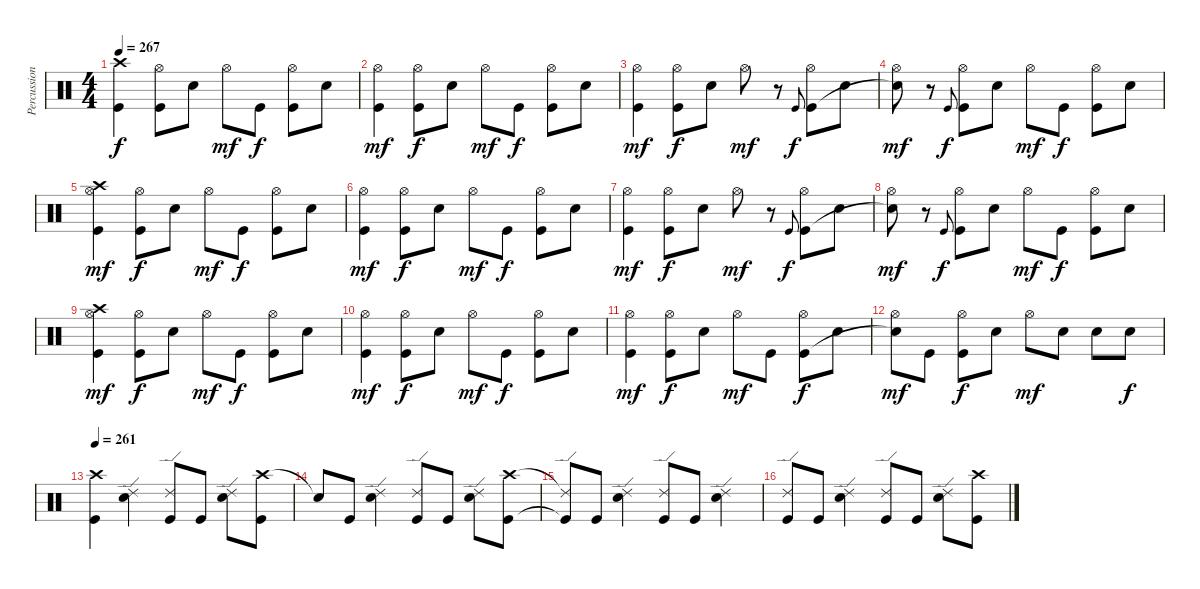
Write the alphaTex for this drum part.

\track ("Percussion" "Percussion") {instrument percussion}
\staff {score}
\articulation defaults
\ts (4 4)
\tempo 267
\clef neutral
\ks c
("Crash high (hit)" "Kick (hit)").4{dy f} ("Hi-Hat (open)" "Kick (hit)").8 "Electric Snare (hit)".8 "Hi-Hat (open)".8{dy mf} "Kick (hit)".8{dy f} ("Hi-Hat (open)" "Kick (hit)").8 "Electric Snare (hit)".8 |
("Hi-Hat (open)" "Kick (hit)").4{dy mf} ("Hi-Hat (open)" "Kick (hit)").8{dy f} "Electric Snare (hit)".8 "Hi-Hat (open)".8{dy mf} "Kick (hit)".8{dy f} ("Hi-Hat (open)" "Kick (hit)").8 "Electric Snare (hit)".8 |
("Hi-Hat (open)" "Kick (hit)").4{dy mf} ("Hi-Hat (open)" "Kick (hit)").8{dy f} "Electric Snare (hit)".8 "Hi-Hat (open)".8{dy mf} r.8 "Kick (hit)".8{gr onbeat dy f} ("Hi-Hat (open)" "Kick (hit)").8 "Electric Snare (hit)".8 |
("Hi-Hat (open)" "Snare (hit)"{t}).8{dy mf} r.8 "Kick (hit)".8{gr onbeat dy f} ("Hi-Hat (open)" "Kick (hit)").8 "Electric Snare (hit)".8 "Hi-Hat (open)".8{dy mf} "Kick (hit)".8{dy f} ("Hi-Hat (open)" "Kick (hit)").8 "Electric Snare (hit)".8 |
("Crash high (hit)" "Hi-Hat (open)" "Kick (hit)").4{dy mf} ("Hi-Hat (open)" "Kick (hit)").8{dy f} "Electric Snare (hit)".8 "Hi-Hat (open)".8{dy mf} "Kick (hit)".8{dy f} ("Hi-Hat (open)" "Kick (hit)").8 "Electric Snare (hit)".8 |
("Hi-Hat (open)" "Kick (hit)").4{dy mf} ("Hi-Hat (open)" "Kick (hit)").8{dy f} "Electric Snare (hit)".8 "Hi-Hat (open)".8{dy mf} "Kick (hit)".8{dy f} ("Hi-Hat (open)" "Kick (hit)").8 "Electric Snare (hit)".8 |
("Hi-Hat (open)" "Kick (hit)").4{dy mf} ("Hi-Hat (open)" "Kick (hit)").8{dy f} "Electric Snare (hit)".8 "Hi-Hat (open)".8{dy mf} r.8 "Kick (hit)".8{gr onbeat dy f} ("Hi-Hat (open)" "Kick (hit)").8 "Electric Snare (hit)".8 |
("Hi-Hat (open)" "Snare (hit)"{t}).8{dy mf} r.8 "Kick (hit)".8{gr onbeat dy f} ("Hi-Hat (open)" "Kick (hit)").8 "Electric Snare (hit)".8 "Hi-Hat (open)".8{dy mf} "Kick (hit)".8{dy f} ("Hi-Hat (open)" "Kick (hit)").8 "Electric Snare (hit)".8 |
("Crash high (hit)" "Hi-Hat (open)" "Kick (hit)").4{dy mf} ("Hi-Hat (open)" "Kick (hit)").8{dy f} "Electric Snare (hit)".8 "Hi-Hat (open)".8{dy mf} "Kick (hit)".8{dy f} ("Hi-Hat (open)" "Kick (hit)").8 "Electric Snare (hit)".8 |
("Hi-Hat (open)" "Kick (hit)").4{dy mf} ("Hi-Hat (open)" "Kick (hit)").8{dy f} "Electric Snare (hit)".8 "Hi-Hat (open)".8{dy mf} "Kick (hit)".8{dy f} ("Hi-Hat (open)" "Kick (hit)").8 "Electric Snare (hit)".8 |
("Hi-Hat (open)" "Kick (hit)").4{dy mf} ("Hi-Hat (open)" "Kick (hit)").8{dy f} "Electric Snare (hit)".8 "Hi-Hat (open)".8{dy mf} "Kick (hit)".8 ("Hi-Hat (open)" "Kick (hit)").8{dy f} "Electric Snare (hit)".8 |
("Hi-Hat (open)" "Snare (hit)"{t}).8{dy mf} "Kick (hit)".8 ("Hi-Hat (open)" "Kick (hit)").8{dy f} "Electric Snare (hit)".8 "Hi-Hat (open)".8{dy mf} "Electric Snare (hit)".8 "Electric Snare (hit)".8 "Electric Snare (hit)".8{dy f} |
\tempo 261
("Crash high (hit)" "Kick (hit)").4 ("Ride (edge) 2" "Electric Snare (hit)").4 ("Ride (edge) 2" "Kick (hit)").8 "Kick (hit)".8 ("Ride (edge) 2" "Electric Snare (hit)").8 ("Crash high (hit)" "Kick (hit)").8 |
"Snare (hit)"{t}.8 "Kick (hit)".8 ("Ride (edge) 2" "Electric Snare (hit)").4 ("Ride (edge) 2" "Kick (hit)").8 "Kick (hit)".8 ("Ride (edge) 2" "Electric Snare (hit)").8 ("Crash high (hit)" "Kick (hit)").8 |
("Ride (edge) 2"{t} "Kick (hit)"{t}).8 "Kick (hit)".8 ("Ride (edge) 2" "Electric Snare (hit)").4 ("Ride (edge) 2" "Kick (hit)").8 "Kick (hit)".8 ("Ride (edge) 2" "Electric Snare (hit)").4 |
("Ride (edge) 2" "Kick (hit)").8 "Kick (hit)".8 ("Ride (edge) 2" "Electric Snare (hit)").4 ("Ride (edge) 2" "Kick (hit)").8 "Kick (hit)".8 ("Ride (edge) 2" "Electric Snare (hit)").8 ("Crash high (hit)" "Kick (hit)").8
